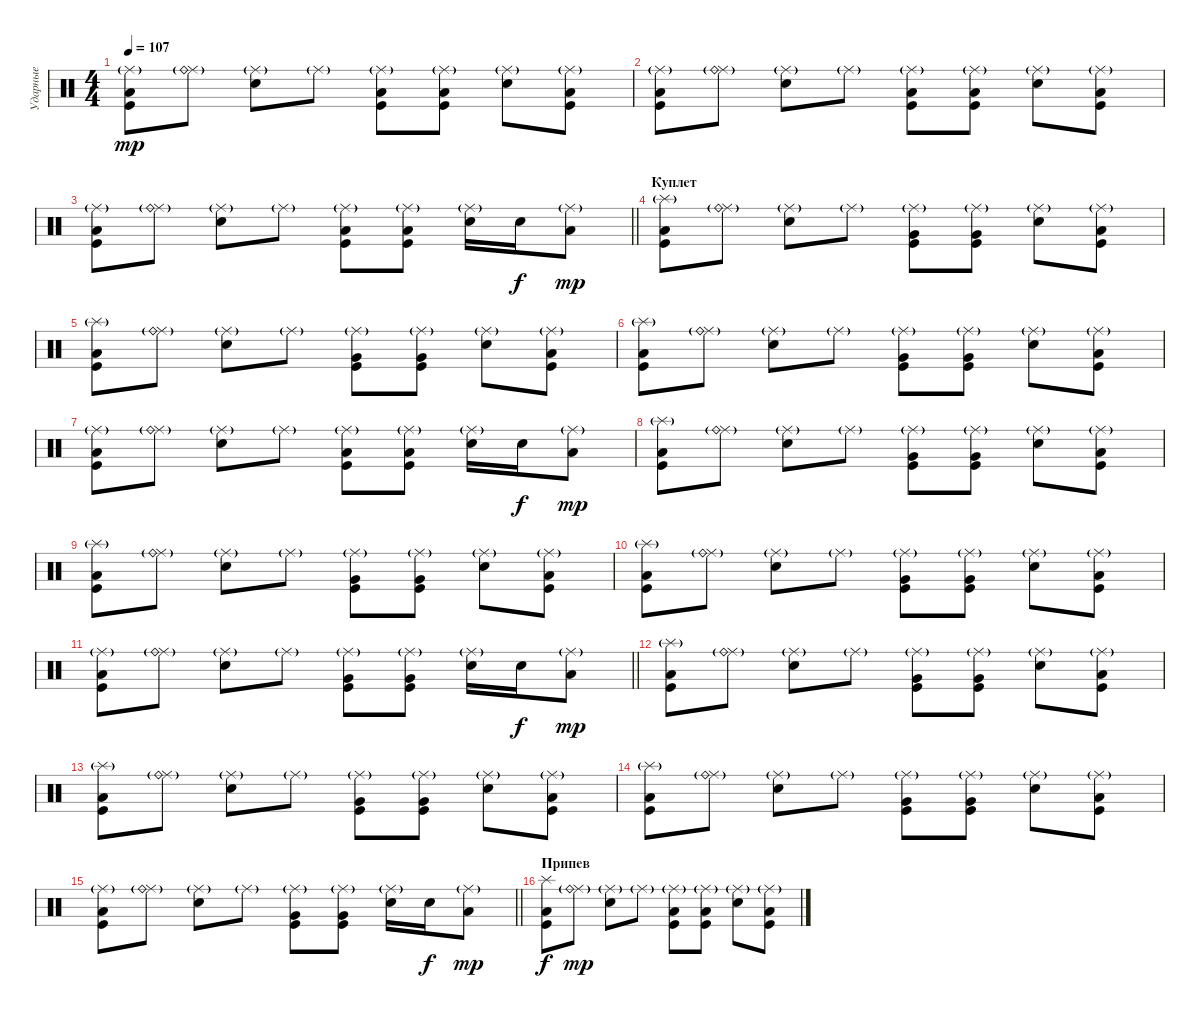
\track ("Ударные" "Ударные") {instrument percussion}
\staff {score}
\articulation defaults
\ts (4 4)
\tempo 107
\clef neutral
\ks c
("Ride (middle)"{g} "Kick (hit)" "Low Tom (hit)").8{dy mp} ("Ride (middle)"{g} "Ride (bell)").8 ("Ride (middle)"{g} "Snare (hit) 2").8 "Ride (middle)"{g}.8 ("Ride (middle)"{g} "Kick (hit)" "Low Tom (hit)").8 ("Ride (middle)"{g} "Kick (hit)" "Low Tom (hit)").8 ("Ride (middle)"{g} "Snare (hit) 2").8 ("Ride (middle)"{g} "Kick (hit)" "Low Tom (hit)").8 |
("Ride (middle)"{g} "Kick (hit)" "Low Tom (hit)").8 ("Ride (middle)"{g} "Ride (bell)").8 ("Ride (middle)"{g} "Snare (hit) 2").8 "Ride (middle)"{g}.8 ("Ride (middle)"{g} "Kick (hit)" "Low Tom (hit)").8 ("Ride (middle)"{g} "Kick (hit)" "Low Tom (hit)").8 ("Ride (middle)"{g} "Snare (hit) 2").8 ("Ride (middle)"{g} "Kick (hit)" "Low Tom (hit)").8 |
\barLineRight lightlight
("Ride (middle)"{g} "Kick (hit)" "Low Tom (hit)").8 ("Ride (middle)"{g} "Ride (bell)").8 ("Ride (middle)"{g} "Snare (hit) 2").8 "Ride (middle)"{g}.8 ("Ride (middle)"{g} "Kick (hit)" "Low Tom (hit)").8 ("Ride (middle)"{g} "Kick (hit)" "Low Tom (hit)").8 ("Ride (middle)"{g} "Snare (hit) 2").16 "Snare (hit) 2".16{dy f} ("Ride (middle)"{g} "Low Tom (hit)").8{dy mp} |
\section ("" "Куплет")
("Splash (hit)"{g} "Kick (hit)" "Low Tom (hit)").8 ("Ride (middle)"{g} "Ride (bell)").8 ("Ride (middle)"{g} "Snare (hit) 2").8 "Ride (middle)"{g}.8 ("Ride (middle)"{g} "Kick (hit)" "Very Low Tom (hit)").8 ("Ride (middle)"{g} "Kick (hit)" "Very Low Tom (hit)").8 ("Ride (middle)"{g} "Snare (hit) 2").8 ("Ride (middle)"{g} "Kick (hit)" "Low Tom (hit)").8 |
("Splash (hit)"{g} "Kick (hit)" "Low Tom (hit)").8 ("Ride (middle)"{g} "Ride (bell)").8 ("Ride (middle)"{g} "Snare (hit) 2").8 "Ride (middle)"{g}.8 ("Ride (middle)"{g} "Kick (hit)" "Very Low Tom (hit)").8 ("Ride (middle)"{g} "Kick (hit)" "Very Low Tom (hit)").8 ("Ride (middle)"{g} "Snare (hit) 2").8 ("Ride (middle)"{g} "Kick (hit)" "Low Tom (hit)").8 |
("Splash (hit)"{g} "Kick (hit)" "Low Tom (hit)").8 ("Ride (middle)"{g} "Ride (bell)").8 ("Ride (middle)"{g} "Snare (hit) 2").8 "Ride (middle)"{g}.8 ("Ride (middle)"{g} "Kick (hit)" "Very Low Tom (hit)").8 ("Ride (middle)"{g} "Kick (hit)" "Very Low Tom (hit)").8 ("Ride (middle)"{g} "Snare (hit) 2").8 ("Ride (middle)"{g} "Kick (hit)" "Low Tom (hit)").8 |
("Ride (middle)"{g} "Kick (hit)" "Low Tom (hit)").8 ("Ride (middle)"{g} "Ride (bell)").8 ("Ride (middle)"{g} "Snare (hit) 2").8 "Ride (middle)"{g}.8 ("Ride (middle)"{g} "Kick (hit)" "Low Tom (hit)").8 ("Ride (middle)"{g} "Kick (hit)" "Low Tom (hit)").8 ("Ride (middle)"{g} "Snare (hit) 2").16 "Snare (hit) 2".16{dy f} ("Ride (middle)"{g} "Low Tom (hit)").8{dy mp} |
("Splash (hit)"{g} "Kick (hit)" "Low Tom (hit)").8 ("Ride (middle)"{g} "Ride (bell)").8 ("Ride (middle)"{g} "Snare (hit) 2").8 "Ride (middle)"{g}.8 ("Ride (middle)"{g} "Kick (hit)" "Very Low Tom (hit)").8 ("Ride (middle)"{g} "Kick (hit)" "Very Low Tom (hit)").8 ("Ride (middle)"{g} "Snare (hit) 2").8 ("Ride (middle)"{g} "Kick (hit)" "Low Tom (hit)").8 |
("Splash (hit)"{g} "Kick (hit)" "Low Tom (hit)").8 ("Ride (middle)"{g} "Ride (bell)").8 ("Ride (middle)"{g} "Snare (hit) 2").8 "Ride (middle)"{g}.8 ("Ride (middle)"{g} "Kick (hit)" "Very Low Tom (hit)").8 ("Ride (middle)"{g} "Kick (hit)" "Very Low Tom (hit)").8 ("Ride (middle)"{g} "Snare (hit) 2").8 ("Ride (middle)"{g} "Kick (hit)" "Low Tom (hit)").8 |
("Splash (hit)"{g} "Kick (hit)" "Low Tom (hit)").8 ("Ride (middle)"{g} "Ride (bell)").8 ("Ride (middle)"{g} "Snare (hit) 2").8 "Ride (middle)"{g}.8 ("Ride (middle)"{g} "Kick (hit)" "Very Low Tom (hit)").8 ("Ride (middle)"{g} "Kick (hit)" "Very Low Tom (hit)").8 ("Ride (middle)"{g} "Snare (hit) 2").8 ("Ride (middle)"{g} "Kick (hit)" "Low Tom (hit)").8 |
\barLineRight lightlight
("Ride (middle)"{g} "Kick (hit)" "Low Tom (hit)").8 ("Ride (middle)"{g} "Ride (bell)").8 ("Ride (middle)"{g} "Snare (hit) 2").8 "Ride (middle)"{g}.8 ("Ride (middle)"{g} "Kick (hit)" "Very Low Tom (hit)").8 ("Ride (middle)"{g} "Kick (hit)" "Very Low Tom (hit)").8 ("Ride (middle)"{g} "Snare (hit) 2").16 "Snare (hit) 2".16{dy f} ("Ride (middle)"{g} "Low Tom (hit)").8{dy mp} |
("Splash (hit)"{g} "Kick (hit)" "Low Tom (hit)").8 ("Ride (middle)"{g} "Ride (bell)").8 ("Ride (middle)"{g} "Snare (hit) 2").8 "Ride (middle)"{g}.8 ("Ride (middle)"{g} "Kick (hit)" "Very Low Tom (hit)").8 ("Ride (middle)"{g} "Kick (hit)" "Very Low Tom (hit)").8 ("Ride (middle)"{g} "Snare (hit) 2").8 ("Ride (middle)"{g} "Kick (hit)" "Low Tom (hit)").8 |
("Splash (hit)"{g} "Kick (hit)" "Low Tom (hit)").8 ("Ride (middle)"{g} "Ride (bell)").8 ("Ride (middle)"{g} "Snare (hit) 2").8 "Ride (middle)"{g}.8 ("Ride (middle)"{g} "Kick (hit)" "Very Low Tom (hit)").8 ("Ride (middle)"{g} "Kick (hit)" "Very Low Tom (hit)").8 ("Ride (middle)"{g} "Snare (hit) 2").8 ("Ride (middle)"{g} "Kick (hit)" "Low Tom (hit)").8 |
("Splash (hit)"{g} "Kick (hit)" "Low Tom (hit)").8 ("Ride (middle)"{g} "Ride (bell)").8 ("Ride (middle)"{g} "Snare (hit) 2").8 "Ride (middle)"{g}.8 ("Ride (middle)"{g} "Kick (hit)" "Very Low Tom (hit)").8 ("Ride (middle)"{g} "Kick (hit)" "Very Low Tom (hit)").8 ("Ride (middle)"{g} "Snare (hit) 2").8 ("Ride (middle)"{g} "Kick (hit)" "Low Tom (hit)").8 |
\barLineRight lightlight
("Ride (middle)"{g} "Kick (hit)" "Low Tom (hit)").8 ("Ride (middle)"{g} "Ride (bell)").8 ("Ride (middle)"{g} "Snare (hit) 2").8 "Ride (middle)"{g}.8 ("Ride (middle)"{g} "Kick (hit)" "Very Low Tom (hit)").8 ("Ride (middle)"{g} "Kick (hit)" "Very Low Tom (hit)").8 ("Ride (middle)"{g} "Snare (hit) 2").16 "Snare (hit) 2".16{dy f} ("Ride (middle)"{g} "Low Tom (hit)").8{dy mp} |
\section ("" "Припев")
("Splash (hit)" "Kick (hit)" "Low Tom (hit)").8{dy f} ("Ride (middle)"{g} "Ride (bell)").8{dy mp} ("Ride (middle)"{g} "Snare (hit) 2").8 "Ride (middle)"{g}.8 ("Ride (middle)"{g} "Kick (hit)" "Low Tom (hit)").8 ("Ride (middle)"{g} "Kick (hit)" "Low Tom (hit)").8 ("Ride (middle)"{g} "Snare (hit) 2").8 ("Ride (middle)"{g} "Kick (hit)" "Low Tom (hit)").8
